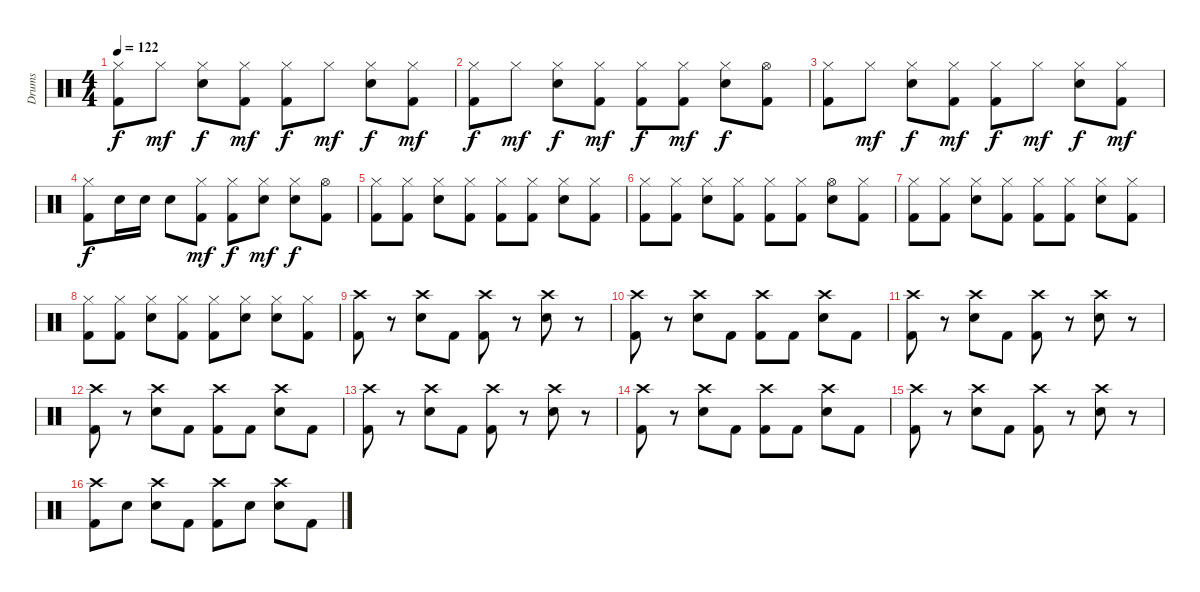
\track ("Drums" "Drums") {instrument percussion}
\staff {score}
\articulation defaults
\ts (4 4)
\tempo 122
\clef neutral
\ks c
("Hi-Hat (closed)" "Kick (hit) 2").8{dy f} "Hi-Hat (closed)".8{dy mf} ("Hi-Hat (closed)" "Electric Snare (hit)").8{dy f} ("Hi-Hat (closed)" "Kick (hit) 2").8{dy mf} ("Hi-Hat (closed)" "Kick (hit) 2").8{dy f} "Hi-Hat (closed)".8{dy mf} ("Hi-Hat (closed)" "Electric Snare (hit)").8{dy f} ("Hi-Hat (closed)" "Kick (hit) 2").8{dy mf} |
("Hi-Hat (closed)" "Kick (hit) 2").8{dy f} "Hi-Hat (closed)".8{dy mf} ("Hi-Hat (closed)" "Electric Snare (hit)").8{dy f} ("Hi-Hat (closed)" "Kick (hit) 2").8{dy mf} ("Hi-Hat (closed)" "Kick (hit) 2").8{dy f} ("Hi-Hat (closed)" "Kick (hit) 2").8{dy mf} ("Hi-Hat (closed)" "Electric Snare (hit)").8{dy f} ("Hi-Hat (open)" "Kick (hit) 2").8 |
("Hi-Hat (closed)" "Kick (hit) 2").8 "Hi-Hat (closed)".8{dy mf} ("Hi-Hat (closed)" "Electric Snare (hit)").8{dy f} ("Hi-Hat (closed)" "Kick (hit) 2").8{dy mf} ("Hi-Hat (closed)" "Kick (hit) 2").8{dy f} "Hi-Hat (closed)".8{dy mf} ("Hi-Hat (closed)" "Electric Snare (hit)").8{dy f} ("Hi-Hat (closed)" "Kick (hit) 2").8{dy mf} |
("Hi-Hat (closed)" "Kick (hit) 2").8{dy f} "Electric Snare (hit)".16 "Electric Snare (hit)".16 "Electric Snare (hit)".8 ("Hi-Hat (closed)" "Kick (hit) 2").8{dy mf} ("Hi-Hat (closed)" "Kick (hit) 2").8{dy f} ("Hi-Hat (closed)" "Electric Snare (hit)").8{dy mf} ("Hi-Hat (closed)" "Electric Snare (hit)").8{dy f} ("Hi-Hat (open)" "Kick (hit) 2").8 |
("Hi-Hat (closed)" "Kick (hit) 2").8 ("Hi-Hat (closed)" "Kick (hit) 2").8 ("Hi-Hat (closed)" "Electric Snare (hit)").8 ("Hi-Hat (closed)" "Kick (hit) 2").8 ("Hi-Hat (closed)" "Kick (hit) 2").8 ("Hi-Hat (closed)" "Kick (hit) 2").8 ("Hi-Hat (closed)" "Electric Snare (hit)").8 ("Hi-Hat (closed)" "Kick (hit) 2").8 |
("Hi-Hat (closed)" "Kick (hit) 2").8 ("Hi-Hat (closed)" "Kick (hit) 2").8 ("Hi-Hat (closed)" "Electric Snare (hit)").8 ("Hi-Hat (closed)" "Kick (hit) 2").8 ("Hi-Hat (closed)" "Kick (hit) 2").8 ("Hi-Hat (closed)" "Kick (hit) 2").8 ("Hi-Hat (open)" "Electric Snare (hit)").8 ("Hi-Hat (closed)" "Kick (hit) 2").8 |
("Hi-Hat (closed)" "Kick (hit) 2").8 ("Hi-Hat (closed)" "Kick (hit) 2").8 ("Hi-Hat (closed)" "Electric Snare (hit)").8 ("Hi-Hat (closed)" "Kick (hit) 2").8 ("Hi-Hat (closed)" "Kick (hit) 2").8 ("Hi-Hat (closed)" "Kick (hit) 2").8 ("Hi-Hat (closed)" "Electric Snare (hit)").8 ("Hi-Hat (closed)" "Kick (hit) 2").8 |
("Hi-Hat (closed)" "Kick (hit) 2").8 ("Hi-Hat (closed)" "Kick (hit) 2").8 ("Hi-Hat (closed)" "Electric Snare (hit)").8 ("Hi-Hat (closed)" "Kick (hit) 2").8 ("Hi-Hat (closed)" "Kick (hit) 2").8 ("Hi-Hat (closed)" "Electric Snare (hit)").8 ("Hi-Hat (closed)" "Electric Snare (hit)").8 ("Hi-Hat (closed)" "Kick (hit) 2").8 |
("Crash high (hit)" "Kick (hit) 2").8 r.8 ("Crash high (hit)" "Electric Snare (hit)").8 "Kick (hit) 2".8 ("Crash high (hit)" "Kick (hit) 2").8 r.8 ("Crash high (hit)" "Electric Snare (hit)").8 r.8 |
("Crash high (hit)" "Kick (hit) 2").8 r.8 ("Crash high (hit)" "Electric Snare (hit)").8 "Kick (hit) 2".8 ("Crash high (hit)" "Kick (hit) 2").8 "Kick (hit) 2".8 ("Crash high (hit)" "Electric Snare (hit)").8 "Kick (hit) 2".8 |
("Crash high (hit)" "Kick (hit) 2").8 r.8 ("Crash high (hit)" "Electric Snare (hit)").8 "Kick (hit) 2".8 ("Crash high (hit)" "Kick (hit) 2").8 r.8 ("Crash high (hit)" "Electric Snare (hit)").8 r.8 |
("Crash high (hit)" "Kick (hit) 2").8 r.8 ("Crash high (hit)" "Electric Snare (hit)").8 "Kick (hit) 2".8 ("Crash high (hit)" "Kick (hit) 2").8 "Kick (hit) 2".8 ("Crash high (hit)" "Electric Snare (hit)").8 "Kick (hit) 2".8 |
("Crash high (hit)" "Kick (hit) 2").8 r.8 ("Crash high (hit)" "Electric Snare (hit)").8 "Kick (hit) 2".8 ("Crash high (hit)" "Kick (hit) 2").8 r.8 ("Crash high (hit)" "Electric Snare (hit)").8 r.8 |
("Crash high (hit)" "Kick (hit) 2").8 r.8 ("Crash high (hit)" "Electric Snare (hit)").8 "Kick (hit) 2".8 ("Crash high (hit)" "Kick (hit) 2").8 "Kick (hit) 2".8 ("Crash high (hit)" "Electric Snare (hit)").8 "Kick (hit) 2".8 |
("Crash high (hit)" "Kick (hit) 2").8 r.8 ("Crash high (hit)" "Electric Snare (hit)").8 "Kick (hit) 2".8 ("Crash high (hit)" "Kick (hit) 2").8 r.8 ("Crash high (hit)" "Electric Snare (hit)").8 r.8 |
("Crash high (hit)" "Kick (hit) 2").8 "Electric Snare (hit)".8 ("Crash high (hit)" "Electric Snare (hit)").8 "Kick (hit) 2".8 ("Crash high (hit)" "Kick (hit) 2").8 "Electric Snare (hit)".8 ("Crash high (hit)" "Electric Snare (hit)").8 "Kick (hit) 2".8
